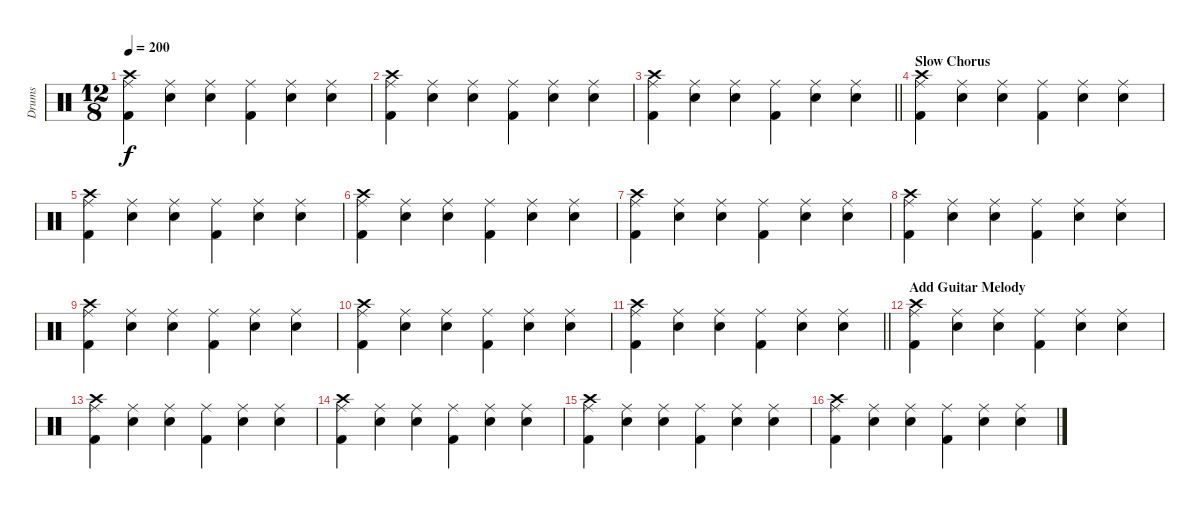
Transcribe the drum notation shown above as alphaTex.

\track ("Drums" "Drums") {instrument percussion}
\staff {score}
\articulation defaults
\ts (12 8)
\tempo 200
\clef neutral
\ks c
("Crash high (hit)" "Ride (middle)" "Kick (hit) 2").4{dy f} ("Ride (middle)" "Snare (hit) 2").4 ("Ride (middle)" "Snare (hit) 2").4 ("Ride (middle)" "Kick (hit) 2").4 ("Ride (middle)" "Snare (hit) 2").4 ("Ride (middle)" "Snare (hit) 2").4 |
("Crash high (hit)" "Ride (middle)" "Kick (hit) 2").4 ("Ride (middle)" "Snare (hit) 2").4 ("Ride (middle)" "Snare (hit) 2").4 ("Ride (middle)" "Kick (hit) 2").4 ("Ride (middle)" "Snare (hit) 2").4 ("Ride (middle)" "Snare (hit) 2").4 |
\barLineRight lightlight
("Crash high (hit)" "Ride (middle)" "Kick (hit) 2").4 ("Ride (middle)" "Snare (hit) 2").4 ("Ride (middle)" "Snare (hit) 2").4 ("Ride (middle)" "Kick (hit) 2").4 ("Ride (middle)" "Snare (hit) 2").4 ("Ride (middle)" "Snare (hit) 2").4 |
\section ("" "Slow Chorus")
("Crash high (hit)" "Ride (middle)" "Kick (hit) 2").4 ("Ride (middle)" "Snare (hit) 2").4 ("Ride (middle)" "Snare (hit) 2").4 ("Ride (middle)" "Kick (hit) 2").4 ("Ride (middle)" "Snare (hit) 2").4 ("Ride (middle)" "Snare (hit) 2").4 |
("Crash high (hit)" "Ride (middle)" "Kick (hit) 2").4 ("Ride (middle)" "Snare (hit) 2").4 ("Ride (middle)" "Snare (hit) 2").4 ("Ride (middle)" "Kick (hit) 2").4 ("Ride (middle)" "Snare (hit) 2").4 ("Ride (middle)" "Snare (hit) 2").4 |
("Crash high (hit)" "Ride (middle)" "Kick (hit) 2").4 ("Ride (middle)" "Snare (hit) 2").4 ("Ride (middle)" "Snare (hit) 2").4 ("Ride (middle)" "Kick (hit) 2").4 ("Ride (middle)" "Snare (hit) 2").4 ("Ride (middle)" "Snare (hit) 2").4 |
("Crash high (hit)" "Ride (middle)" "Kick (hit) 2").4 ("Ride (middle)" "Snare (hit) 2").4 ("Ride (middle)" "Snare (hit) 2").4 ("Ride (middle)" "Kick (hit) 2").4 ("Ride (middle)" "Snare (hit) 2").4 ("Ride (middle)" "Snare (hit) 2").4 |
("Crash high (hit)" "Ride (middle)" "Kick (hit) 2").4 ("Ride (middle)" "Snare (hit) 2").4 ("Ride (middle)" "Snare (hit) 2").4 ("Ride (middle)" "Kick (hit) 2").4 ("Ride (middle)" "Snare (hit) 2").4 ("Ride (middle)" "Snare (hit) 2").4 |
("Crash high (hit)" "Ride (middle)" "Kick (hit) 2").4 ("Ride (middle)" "Snare (hit) 2").4 ("Ride (middle)" "Snare (hit) 2").4 ("Ride (middle)" "Kick (hit) 2").4 ("Ride (middle)" "Snare (hit) 2").4 ("Ride (middle)" "Snare (hit) 2").4 |
("Crash high (hit)" "Ride (middle)" "Kick (hit) 2").4 ("Ride (middle)" "Snare (hit) 2").4 ("Ride (middle)" "Snare (hit) 2").4 ("Ride (middle)" "Kick (hit) 2").4 ("Ride (middle)" "Snare (hit) 2").4 ("Ride (middle)" "Snare (hit) 2").4 |
\barLineRight lightlight
("Crash high (hit)" "Ride (middle)" "Kick (hit) 2").4 ("Ride (middle)" "Snare (hit) 2").4 ("Ride (middle)" "Snare (hit) 2").4 ("Ride (middle)" "Kick (hit) 2").4 ("Ride (middle)" "Snare (hit) 2").4 ("Ride (middle)" "Snare (hit) 2").4 |
\section ("" "Add Guitar Melody")
("Crash high (hit)" "Ride (middle)" "Kick (hit) 2").4 ("Ride (middle)" "Snare (hit) 2").4 ("Ride (middle)" "Snare (hit) 2").4 ("Ride (middle)" "Kick (hit) 2").4 ("Ride (middle)" "Snare (hit) 2").4 ("Ride (middle)" "Snare (hit) 2").4 |
("Crash high (hit)" "Ride (middle)" "Kick (hit) 2").4 ("Ride (middle)" "Snare (hit) 2").4 ("Ride (middle)" "Snare (hit) 2").4 ("Ride (middle)" "Kick (hit) 2").4 ("Ride (middle)" "Snare (hit) 2").4 ("Ride (middle)" "Snare (hit) 2").4 |
("Crash high (hit)" "Ride (middle)" "Kick (hit) 2").4 ("Ride (middle)" "Snare (hit) 2").4 ("Ride (middle)" "Snare (hit) 2").4 ("Ride (middle)" "Kick (hit) 2").4 ("Ride (middle)" "Snare (hit) 2").4 ("Ride (middle)" "Snare (hit) 2").4 |
("Crash high (hit)" "Ride (middle)" "Kick (hit) 2").4 ("Ride (middle)" "Snare (hit) 2").4 ("Ride (middle)" "Snare (hit) 2").4 ("Ride (middle)" "Kick (hit) 2").4 ("Ride (middle)" "Snare (hit) 2").4 ("Ride (middle)" "Snare (hit) 2").4 |
("Crash high (hit)" "Ride (middle)" "Kick (hit) 2").4 ("Ride (middle)" "Snare (hit) 2").4 ("Ride (middle)" "Snare (hit) 2").4 ("Ride (middle)" "Kick (hit) 2").4 ("Ride (middle)" "Snare (hit) 2").4 ("Ride (middle)" "Snare (hit) 2").4
